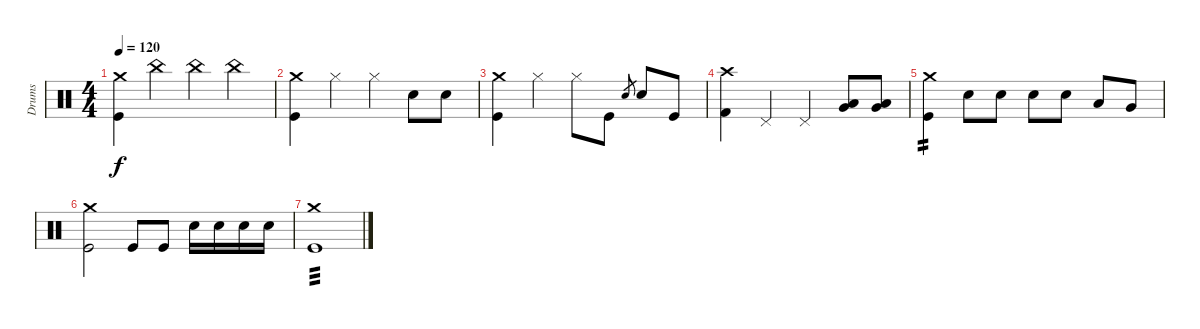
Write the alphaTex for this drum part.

\track ("Drums" "Drums") {instrument percussion}
\staff {score}
\articulation defaults
\ts (4 4)
\tempo 120
\clef neutral
\ks c
("Crash medium (hit)" "Kick (hit)").4{dy f} "China (hit)".4 "China (hit)".4 "China (hit)".4 |
("Crash medium (hit)" "Kick (hit)").4 "Hi-Hat (closed)".4 "Hi-Hat (closed)".4 "Electric Snare (hit)".8 "Electric Snare (hit)".8 |
("Crash medium (hit)" "Kick (hit)").4 "Hi-Hat (closed)".4 "Hi-Hat (closed)".8 "Kick (hit)".8 "Electric Snare (hit)".8{gr} "Electric Snare (hit)".8 "Kick (hit)".8 |
("Crash high (hit)" "Kick (hit) 2").4 "Pedal Hi-Hat (hit)".4 "Pedal Hi-Hat (hit)".4 ("Very Low Tom (hit)" "Low Floor Tom (hit)").8 ("Very Low Tom (hit)" "Low Floor Tom (hit)").8 |
("Crash medium (hit)" "Kick (hit)").4{tp 2} "Electric Snare (hit)".8 "Electric Snare (hit)".8 "Electric Snare (hit)".8 "Electric Snare (hit)".8 "Low Tom (hit)".8 "Very Low Tom (hit)".8 |
("Crash medium (hit)" "Kick (hit)").2 "Kick (hit)".8 "Kick (hit)".8 "Electric Snare (hit)".16 "Electric Snare (hit)".16 "Electric Snare (hit)".16 "Electric Snare (hit)".16 |
("Crash medium (hit)" "Kick (hit)").1{tp 3}
